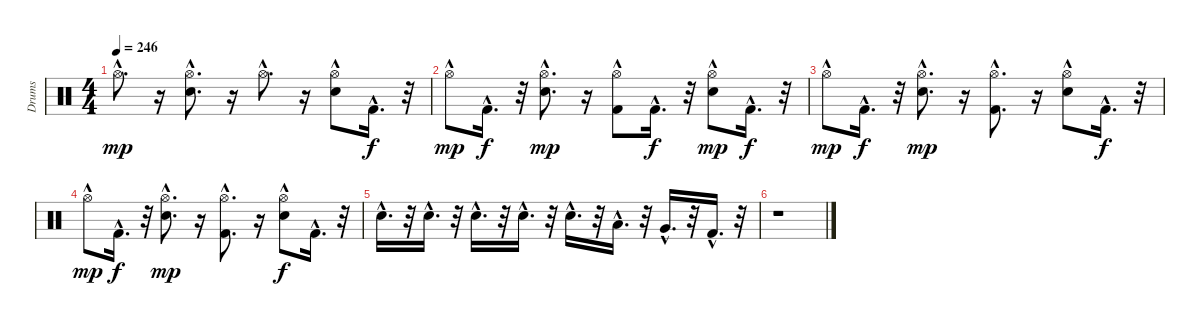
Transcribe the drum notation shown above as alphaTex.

\track ("Drums" "Drums") {instrument percussion}
\staff {score}
\articulation defaults
\ts (4 4)
\tempo 246
\clef neutral
\ks c "Hi-Hat (open)"{hac}.8{d dy mp}
r.16 ("Hi-Hat (open)"{hac} "Electric Snare (hit)"{hac}).8{d} r.16 "Hi-Hat (open)"{hac}.8{d} r.16 ("Hi-Hat (open)"{hac} "Electric Snare (hit)"{hac}).8 "Kick (hit) 2"{hac}.16{d dy f} r.32 |
"Hi-Hat (open)"{hac}.8{dy mp} "Kick (hit) 2"{hac}.16{d dy f} r.32 ("Hi-Hat (open)"{hac} "Electric Snare (hit)"{hac}).8{d dy mp} r.16 ("Hi-Hat (open)"{hac} "Kick (hit) 2"{hac}).8 "Kick (hit) 2"{hac}.16{d dy f} r.32 ("Hi-Hat (open)"{hac} "Electric Snare (hit)"{hac}).8{dy mp} "Kick (hit) 2"{hac}.16{d dy f} r.32 |
"Hi-Hat (open)"{hac}.8{dy mp} "Kick (hit) 2"{hac}.16{d dy f} r.32 ("Hi-Hat (open)"{hac} "Electric Snare (hit)"{hac}).8{d dy mp} r.16 ("Hi-Hat (open)"{hac} "Kick (hit) 2"{hac}).8{d} r.16 ("Hi-Hat (open)"{hac} "Electric Snare (hit)"{hac}).8 "Kick (hit) 2"{hac}.16{d dy f} r.32 |
"Hi-Hat (open)"{hac}.8{dy mp} "Kick (hit) 2"{hac}.16{d dy f} r.32 ("Hi-Hat (open)"{hac} "Electric Snare (hit)"{hac}).8{d dy mp} r.16 ("Hi-Hat (open)"{hac} "Kick (hit) 2"{hac}).8{d} r.16 ("Hi-Hat (open)"{hac} "Electric Snare (hit)"{hac}).8{dy f} "Kick (hit) 2"{hac}.16{d} r.32 |
"Electric Snare (hit)"{hac}.16{d} r.32 "Electric Snare (hit)"{hac}.16{d} r.32 "Electric Snare (hit)"{hac}.16{d} r.32 "Electric Snare (hit)"{hac}.16{d} r.32 "Electric Snare (hit)"{hac}.16{d} r.32 "Low Tom (hit)"{hac}.16{d} r.32 "Very Low Tom (hit)"{hac}.16{d} r.32 "Kick (hit) 2"{hac}.16{d} r.32 |
r.1
